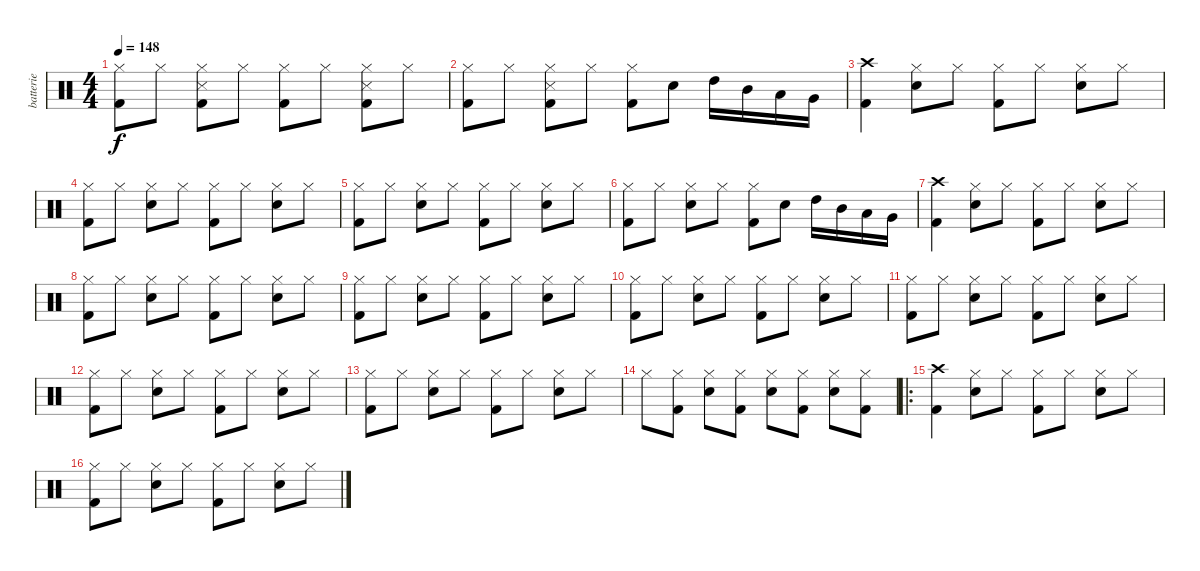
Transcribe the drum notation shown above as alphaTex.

\track ("batterie" "batterie") {instrument percussion}
\staff {score}
\articulation defaults
\ts (4 4)
\tempo 148
\clef neutral
\ks c
("Hi-Hat (closed)" "Kick (hit) 2").8{dy f} "Hi-Hat (closed)".8 ("Hi-Hat (closed)" "Snare (side stick) 3" "Kick (hit) 2").8 "Hi-Hat (closed)".8 ("Hi-Hat (closed)" "Kick (hit) 2").8 "Hi-Hat (closed)".8 ("Hi-Hat (closed)" "Snare (side stick) 3" "Kick (hit) 2").8 "Hi-Hat (closed)".8 |
("Hi-Hat (closed)" "Kick (hit) 2").8 "Hi-Hat (closed)".8 ("Hi-Hat (closed)" "Snare (side stick) 3" "Kick (hit) 2").8 "Hi-Hat (closed)".8 ("Hi-Hat (closed)" "Kick (hit) 2").8 "Snare (hit) 2".8 "High Tom (hit)".16 "Mid Tom (hit)".16 "Low Tom (hit)".16 "Very Low Tom (hit)".16 |
("Crash high (hit)" "Kick (hit) 2").4 ("Hi-Hat (closed)" "Snare (hit) 2").8 "Hi-Hat (closed)".8 ("Hi-Hat (closed)" "Kick (hit) 2").8 "Hi-Hat (closed)".8 ("Hi-Hat (closed)" "Snare (hit) 2").8 "Hi-Hat (closed)".8 |
("Hi-Hat (closed)" "Kick (hit) 2").8 "Hi-Hat (closed)".8 ("Hi-Hat (closed)" "Snare (hit) 2").8 "Hi-Hat (closed)".8 ("Hi-Hat (closed)" "Kick (hit) 2").8 "Hi-Hat (closed)".8 ("Hi-Hat (closed)" "Snare (hit) 2").8 "Hi-Hat (closed)".8 |
("Hi-Hat (closed)" "Kick (hit) 2").8 "Hi-Hat (closed)".8 ("Hi-Hat (closed)" "Snare (hit) 2").8 "Hi-Hat (closed)".8 ("Hi-Hat (closed)" "Kick (hit) 2").8 "Hi-Hat (closed)".8 ("Hi-Hat (closed)" "Snare (hit) 2").8 "Hi-Hat (closed)".8 |
("Hi-Hat (closed)" "Kick (hit) 2").8 "Hi-Hat (closed)".8 ("Hi-Hat (closed)" "Snare (hit) 2").8 "Hi-Hat (closed)".8 ("Hi-Hat (closed)" "Kick (hit) 2").8 "Snare (hit) 2".8 "High Tom (hit)".16 "Mid Tom (hit)".16 "Low Tom (hit)".16 "Very Low Tom (hit)".16 |
("Crash high (hit)" "Kick (hit) 2").4 ("Hi-Hat (closed)" "Snare (hit) 2").8 "Hi-Hat (closed)".8 ("Hi-Hat (closed)" "Kick (hit) 2").8 "Hi-Hat (closed)".8 ("Hi-Hat (closed)" "Snare (hit) 2").8 "Hi-Hat (closed)".8 |
("Hi-Hat (closed)" "Kick (hit) 2").8 "Hi-Hat (closed)".8 ("Hi-Hat (closed)" "Snare (hit) 2").8 "Hi-Hat (closed)".8 ("Hi-Hat (closed)" "Kick (hit) 2").8 "Hi-Hat (closed)".8 ("Hi-Hat (closed)" "Snare (hit) 2").8 "Hi-Hat (closed)".8 |
("Hi-Hat (closed)" "Kick (hit) 2").8 "Hi-Hat (closed)".8 ("Hi-Hat (closed)" "Snare (hit) 2").8 "Hi-Hat (closed)".8 ("Hi-Hat (closed)" "Kick (hit) 2").8 "Hi-Hat (closed)".8 ("Hi-Hat (closed)" "Snare (hit) 2").8 "Hi-Hat (closed)".8 |
("Hi-Hat (closed)" "Kick (hit) 2").8 "Hi-Hat (closed)".8 ("Hi-Hat (closed)" "Snare (hit) 2").8 "Hi-Hat (closed)".8 ("Hi-Hat (closed)" "Kick (hit) 2").8 "Hi-Hat (closed)".8 ("Hi-Hat (closed)" "Snare (hit) 2").8 "Hi-Hat (closed)".8 |
("Hi-Hat (closed)" "Kick (hit) 2").8 "Hi-Hat (closed)".8 ("Hi-Hat (closed)" "Snare (hit) 2").8 "Hi-Hat (closed)".8 ("Hi-Hat (closed)" "Kick (hit) 2").8 "Hi-Hat (closed)".8 ("Hi-Hat (closed)" "Snare (hit) 2").8 "Hi-Hat (closed)".8 |
("Hi-Hat (closed)" "Kick (hit) 2").8 "Hi-Hat (closed)".8 ("Hi-Hat (closed)" "Snare (hit) 2").8 "Hi-Hat (closed)".8 ("Hi-Hat (closed)" "Kick (hit) 2").8 "Hi-Hat (closed)".8 ("Hi-Hat (closed)" "Snare (hit) 2").8 "Hi-Hat (closed)".8 |
("Hi-Hat (closed)" "Kick (hit) 2").8 "Hi-Hat (closed)".8 ("Hi-Hat (closed)" "Snare (hit) 2").8 "Hi-Hat (closed)".8 ("Hi-Hat (closed)" "Kick (hit) 2").8 "Hi-Hat (closed)".8 ("Hi-Hat (closed)" "Snare (hit) 2").8 "Hi-Hat (closed)".8 |
"Hi-Hat (closed)".8 ("Hi-Hat (closed)" "Kick (hit) 2").8 ("Hi-Hat (closed)" "Snare (hit) 2").8 ("Hi-Hat (closed)" "Kick (hit) 2").8 ("Hi-Hat (closed)" "Snare (hit) 2").8 ("Hi-Hat (closed)" "Kick (hit) 2").8 ("Hi-Hat (closed)" "Snare (hit) 2").8 ("Hi-Hat (closed)" "Kick (hit) 2").8 |
\ro
("Crash high (hit)" "Kick (hit) 2").4 ("Hi-Hat (closed)" "Snare (hit) 2").8 "Hi-Hat (closed)".8 ("Hi-Hat (closed)" "Kick (hit) 2").8 "Hi-Hat (closed)".8 ("Hi-Hat (closed)" "Snare (hit) 2").8 "Hi-Hat (closed)".8 |
("Hi-Hat (closed)" "Kick (hit) 2").8 "Hi-Hat (closed)".8 ("Hi-Hat (closed)" "Snare (hit) 2").8 "Hi-Hat (closed)".8 ("Hi-Hat (closed)" "Kick (hit) 2").8 "Hi-Hat (closed)".8 ("Hi-Hat (closed)" "Snare (hit) 2").8 "Hi-Hat (closed)".8
